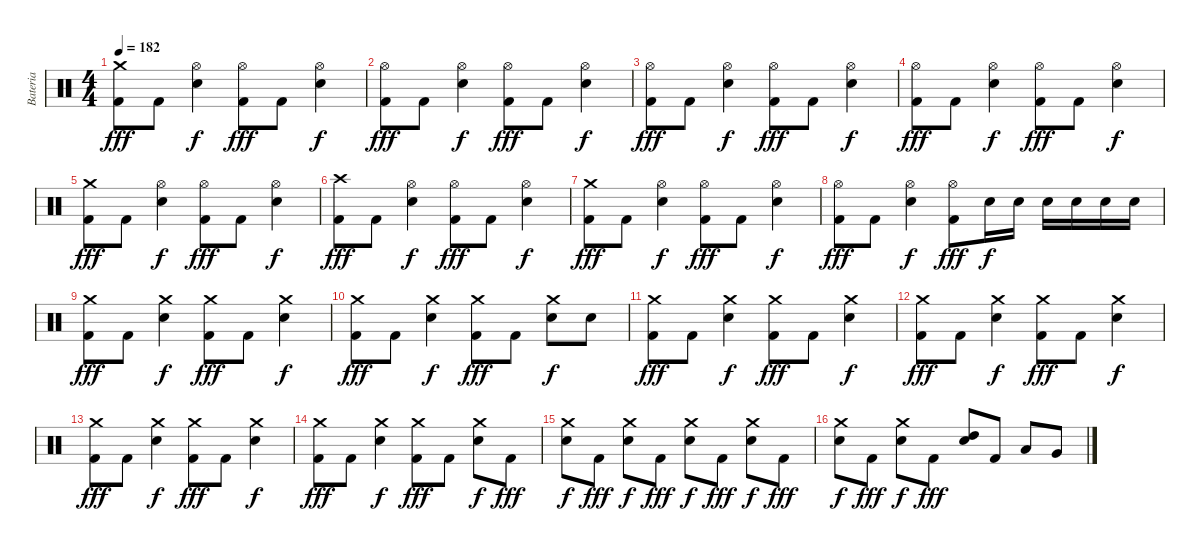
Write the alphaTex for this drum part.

\track ("Bateria" "Bateria") {instrument percussion}
\staff {score}
\articulation defaults
\ts (4 4)
\tempo 182
\clef neutral
\ks c
("Crash medium (hit)" "Kick (hit) 2").8{dy fff} "Kick (hit) 2".8 ("Hi-Hat (open)" "Electric Snare (hit)").4{dy f} ("Hi-Hat (open)" "Kick (hit) 2").8{dy fff} "Kick (hit) 2".8 ("Hi-Hat (open)" "Electric Snare (hit)").4{dy f} |
("Hi-Hat (open)" "Kick (hit) 2").8{dy fff} "Kick (hit) 2".8 ("Hi-Hat (open)" "Electric Snare (hit)").4{dy f} ("Hi-Hat (open)" "Kick (hit) 2").8{dy fff} "Kick (hit) 2".8 ("Hi-Hat (open)" "Electric Snare (hit)").4{dy f} |
("Hi-Hat (open)" "Kick (hit) 2").8{dy fff} "Kick (hit) 2".8 ("Hi-Hat (open)" "Electric Snare (hit)").4{dy f} ("Hi-Hat (open)" "Kick (hit) 2").8{dy fff} "Kick (hit) 2".8 ("Hi-Hat (open)" "Electric Snare (hit)").4{dy f} |
("Hi-Hat (open)" "Kick (hit) 2").8{dy fff} "Kick (hit) 2".8 ("Hi-Hat (open)" "Electric Snare (hit)").4{dy f} ("Hi-Hat (open)" "Kick (hit) 2").8{dy fff} "Kick (hit) 2".8 ("Hi-Hat (open)" "Electric Snare (hit)").4{dy f} |
("Crash medium (hit)" "Kick (hit) 2").8{dy fff} "Kick (hit) 2".8 ("Hi-Hat (open)" "Electric Snare (hit)").4{dy f} ("Hi-Hat (open)" "Kick (hit) 2").8{dy fff} "Kick (hit) 2".8 ("Hi-Hat (open)" "Electric Snare (hit)").4{dy f} |
("Crash high (hit)" "Kick (hit) 2").8{dy fff} "Kick (hit) 2".8 ("Hi-Hat (open)" "Electric Snare (hit)").4{dy f} ("Hi-Hat (open)" "Kick (hit) 2").8{dy fff} "Kick (hit) 2".8 ("Hi-Hat (open)" "Electric Snare (hit)").4{dy f} |
("Crash medium (hit)" "Kick (hit) 2").8{dy fff} "Kick (hit) 2".8 ("Hi-Hat (open)" "Electric Snare (hit)").4{dy f} ("Hi-Hat (open)" "Kick (hit) 2").8{dy fff} "Kick (hit) 2".8 ("Hi-Hat (open)" "Electric Snare (hit)").4{dy f} |
("Hi-Hat (open)" "Kick (hit) 2").8{dy fff} "Kick (hit) 2".8 ("Hi-Hat (open)" "Electric Snare (hit)").4{dy f} ("Hi-Hat (open)" "Kick (hit) 2").8{dy fff} "Electric Snare (hit)".16{dy f} "Electric Snare (hit)".16 "Electric Snare (hit)".16 "Electric Snare (hit)".16 "Electric Snare (hit)".16 "Electric Snare (hit)".16 |
("Crash medium (hit)" "Kick (hit) 2").8{dy fff} "Kick (hit) 2".8 ("Crash medium (hit)" "Electric Snare (hit)").4{dy f} ("Crash medium (hit)" "Kick (hit) 2").8{dy fff} "Kick (hit) 2".8 ("Crash medium (hit)" "Electric Snare (hit)").4{dy f} |
("Crash medium (hit)" "Kick (hit) 2").8{dy fff} "Kick (hit) 2".8 ("Crash medium (hit)" "Electric Snare (hit)").4{dy f} ("Crash medium (hit)" "Kick (hit) 2").8{dy fff} "Kick (hit) 2".8 ("Crash medium (hit)" "Electric Snare (hit)").8{dy f} "Electric Snare (hit)".8 |
("Crash medium (hit)" "Kick (hit) 2").8{dy fff} "Kick (hit) 2".8 ("Crash medium (hit)" "Electric Snare (hit)").4{dy f} ("Crash medium (hit)" "Kick (hit) 2").8{dy fff} "Kick (hit) 2".8 ("Crash medium (hit)" "Electric Snare (hit)").4{dy f} |
("Crash medium (hit)" "Kick (hit) 2").8{dy fff} "Kick (hit) 2".8 ("Crash medium (hit)" "Electric Snare (hit)").4{dy f} ("Crash medium (hit)" "Kick (hit) 2").8{dy fff} "Kick (hit) 2".8 ("Crash medium (hit)" "Electric Snare (hit)").4{dy f} |
("Crash medium (hit)" "Kick (hit) 2").8{dy fff} "Kick (hit) 2".8 ("Crash medium (hit)" "Electric Snare (hit)").4{dy f} ("Crash medium (hit)" "Kick (hit) 2").8{dy fff} "Kick (hit) 2".8 ("Crash medium (hit)" "Electric Snare (hit)").4{dy f} |
("Crash medium (hit)" "Kick (hit) 2").8{dy fff} "Kick (hit) 2".8 ("Crash medium (hit)" "Electric Snare (hit)").4{dy f} ("Crash medium (hit)" "Kick (hit) 2").8{dy fff} "Kick (hit) 2".8 ("Crash medium (hit)" "Electric Snare (hit)").8{dy f} "Kick (hit) 2".8{dy fff} |
("Crash medium (hit)" "Electric Snare (hit)").8{dy f} "Kick (hit) 2".8{dy fff} ("Crash medium (hit)" "Electric Snare (hit)").8{dy f} "Kick (hit) 2".8{dy fff} ("Crash medium (hit)" "Electric Snare (hit)").8{dy f} "Kick (hit) 2".8{dy fff} ("Crash medium (hit)" "Electric Snare (hit)").8{dy f} "Kick (hit) 2".8{dy fff} |
("Crash medium (hit)" "Electric Snare (hit)").8{dy f} "Kick (hit) 2".8{dy fff} ("Crash medium (hit)" "Electric Snare (hit)").8{dy f} "Kick (hit) 2".8{dy fff} ("High Tom (hit)" "Electric Snare (hit)").8 "Kick (hit) 2".8 "Low Tom (hit)".8 "Very Low Tom (hit)".8
